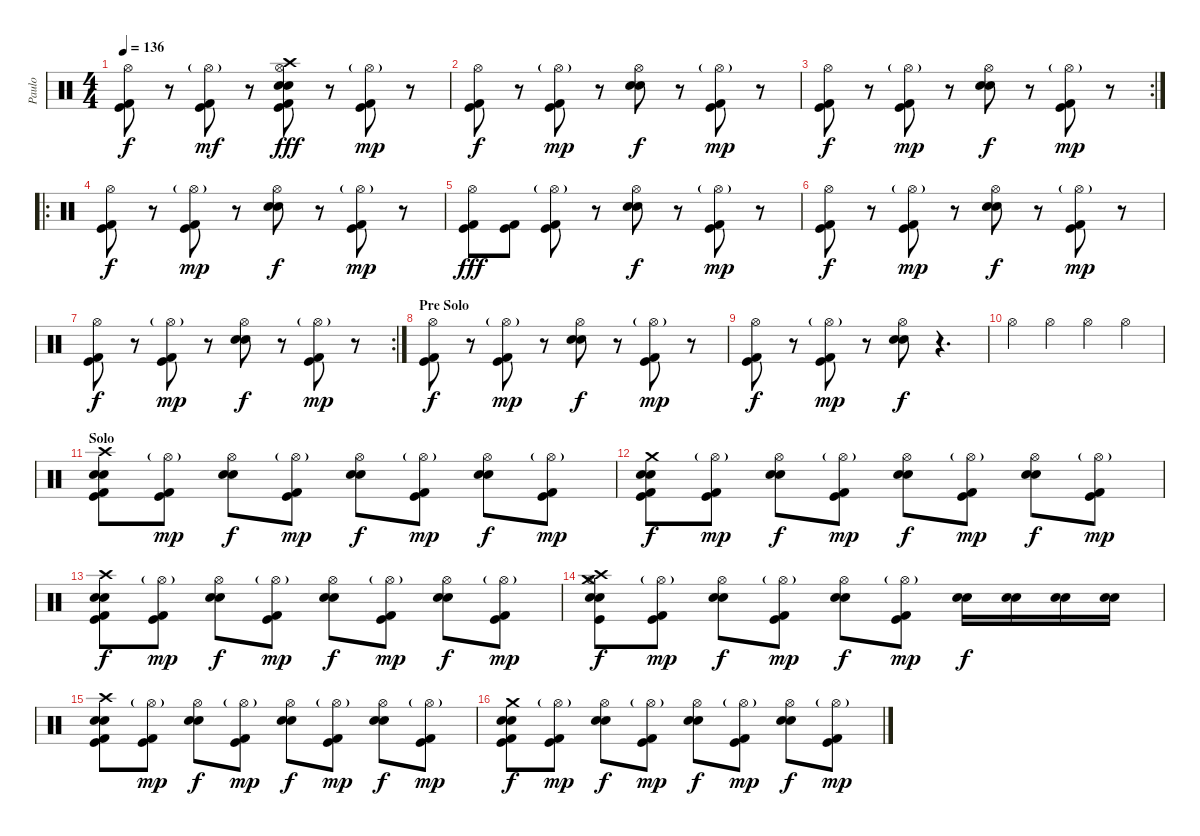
\track ("Paulo" "Paulo") {instrument percussion}
\staff {score}
\articulation defaults
\ts (4 4)
\tempo 136
\clef neutral
\ks c
("Hi-Hat (open)" "Kick (hit) 2" "Kick (hit)").8{dy f} r.8 ("Hi-Hat (open)"{g} "Kick (hit) 2" "Kick (hit)").8{dy mf} r.8 ("Hi-Hat (open)" "Snare (hit) 2" "Electric Snare (hit)" "Kick (hit)" "Crash high (hit)" "Kick (hit) 2").8{dy fff} r.8 ("Hi-Hat (open)"{g} "Kick (hit) 2" "Kick (hit)").8{dy mp} r.8 |
("Hi-Hat (open)" "Kick (hit) 2" "Kick (hit)").8{dy f} r.8 ("Hi-Hat (open)"{g} "Kick (hit) 2" "Kick (hit)").8{dy mp} r.8 ("Hi-Hat (open)" "Snare (hit) 2" "Electric Snare (hit)").8{dy f} r.8 ("Hi-Hat (open)"{g} "Kick (hit) 2" "Kick (hit)").8{dy mp} r.8 |
\rc 2
("Hi-Hat (open)" "Kick (hit) 2" "Kick (hit)").8{dy f} r.8 ("Hi-Hat (open)"{g} "Kick (hit) 2" "Kick (hit)").8{dy mp} r.8 ("Hi-Hat (open)" "Snare (hit) 2" "Electric Snare (hit)").8{dy f} r.8 ("Hi-Hat (open)"{g} "Kick (hit) 2" "Kick (hit)").8{dy mp} r.8 |
\ro
("Hi-Hat (open)" "Kick (hit) 2" "Kick (hit)").8{dy f} r.8 ("Hi-Hat (open)"{g} "Kick (hit) 2" "Kick (hit)").8{dy mp} r.8 ("Hi-Hat (open)" "Snare (hit) 2" "Electric Snare (hit)").8{dy f} r.8 ("Hi-Hat (open)"{g} "Kick (hit) 2" "Kick (hit)").8{dy mp} r.8 |
("Hi-Hat (open)" "Kick (hit) 2" "Kick (hit)").8{dy fff} ("Kick (hit) 2" "Kick (hit)").8 ("Hi-Hat (open)"{g} "Kick (hit) 2" "Kick (hit)").8 r.8 ("Hi-Hat (open)" "Snare (hit) 2" "Electric Snare (hit)").8{dy f} r.8 ("Hi-Hat (open)"{g} "Kick (hit) 2" "Kick (hit)").8{dy mp} r.8 |
("Hi-Hat (open)" "Kick (hit) 2" "Kick (hit)").8{dy f} r.8 ("Hi-Hat (open)"{g} "Kick (hit) 2" "Kick (hit)").8{dy mp} r.8 ("Hi-Hat (open)" "Snare (hit) 2" "Electric Snare (hit)").8{dy f} r.8 ("Hi-Hat (open)"{g} "Kick (hit) 2" "Kick (hit)").8{dy mp} r.8 |
\rc 2
("Hi-Hat (open)" "Kick (hit) 2" "Kick (hit)").8{dy f} r.8 ("Hi-Hat (open)"{g} "Kick (hit) 2" "Kick (hit)").8{dy mp} r.8 ("Hi-Hat (open)" "Snare (hit) 2" "Electric Snare (hit)").8{dy f} r.8 ("Hi-Hat (open)"{g} "Kick (hit) 2" "Kick (hit)").8{dy mp} r.8 |
\section ("" "Pre Solo")
("Hi-Hat (open)" "Kick (hit) 2" "Kick (hit)").8{dy f} r.8 ("Hi-Hat (open)"{g} "Kick (hit) 2" "Kick (hit)").8{dy mp} r.8 ("Hi-Hat (open)" "Snare (hit) 2" "Electric Snare (hit)").8{dy f} r.8 ("Hi-Hat (open)"{g} "Kick (hit) 2" "Kick (hit)").8{dy mp} r.8 |
("Hi-Hat (open)" "Kick (hit) 2" "Kick (hit)").8{dy f} r.8 ("Hi-Hat (open)"{g} "Kick (hit) 2" "Kick (hit)").8{dy mp} r.8 ("Hi-Hat (open)" "Snare (hit) 2" "Electric Snare (hit)").8{dy f} r.4{d} |
"Hi-Hat (open)".4 "Hi-Hat (open)".4 "Hi-Hat (open)".4 "Hi-Hat (open)".4 |
\section ("" "Solo")
("Kick (hit) 2" "Snare (hit) 2" "Electric Snare (hit)" "Kick (hit)" "Crash high (hit)").8 ("Hi-Hat (open)"{g} "Kick (hit) 2" "Kick (hit)").8{dy mp} ("Hi-Hat (open)" "Snare (hit) 2" "Electric Snare (hit)").8{dy f} ("Hi-Hat (open)"{g} "Kick (hit) 2" "Kick (hit)").8{dy mp} ("Hi-Hat (open)" "Snare (hit) 2" "Electric Snare (hit)").8{dy f} ("Hi-Hat (open)"{g} "Kick (hit) 2" "Kick (hit)").8{dy mp} ("Hi-Hat (open)" "Snare (hit) 2" "Electric Snare (hit)").8{dy f} ("Hi-Hat (open)"{g} "Kick (hit) 2" "Kick (hit)").8{dy mp} |
("Kick (hit) 2" "Snare (hit) 2" "Electric Snare (hit)" "Kick (hit)" "Crash medium (hit)").8{dy f} ("Hi-Hat (open)"{g} "Kick (hit) 2" "Kick (hit)").8{dy mp} ("Hi-Hat (open)" "Snare (hit) 2" "Electric Snare (hit)").8{dy f} ("Hi-Hat (open)"{g} "Kick (hit) 2" "Kick (hit)").8{dy mp} ("Hi-Hat (open)" "Snare (hit) 2" "Electric Snare (hit)").8{dy f} ("Hi-Hat (open)"{g} "Kick (hit) 2" "Kick (hit)").8{dy mp} ("Hi-Hat (open)" "Snare (hit) 2" "Electric Snare (hit)").8{dy f} ("Hi-Hat (open)"{g} "Kick (hit) 2" "Kick (hit)").8{dy mp} |
("Kick (hit) 2" "Snare (hit) 2" "Electric Snare (hit)" "Kick (hit)" "Crash high (hit)").8{dy f} ("Hi-Hat (open)"{g} "Kick (hit) 2" "Kick (hit)").8{dy mp} ("Hi-Hat (open)" "Snare (hit) 2" "Electric Snare (hit)").8{dy f} ("Hi-Hat (open)"{g} "Kick (hit) 2" "Kick (hit)").8{dy mp} ("Hi-Hat (open)" "Snare (hit) 2" "Electric Snare (hit)").8{dy f} ("Hi-Hat (open)"{g} "Kick (hit) 2" "Kick (hit)").8{dy mp} ("Hi-Hat (open)" "Snare (hit) 2" "Electric Snare (hit)").8{dy f} ("Hi-Hat (open)"{g} "Kick (hit) 2" "Kick (hit)").8{dy mp} |
("Hi-Hat (open)" "Snare (hit) 2" "Kick (hit)" "Crash medium (hit)" "Crash high (hit)" "Electric Snare (hit)").8{dy f} ("Hi-Hat (open)"{g} "Kick (hit) 2" "Kick (hit)").8{dy mp} ("Hi-Hat (open)" "Snare (hit) 2" "Electric Snare (hit)").8{dy f} ("Hi-Hat (open)"{g} "Kick (hit) 2" "Kick (hit)").8{dy mp} ("Hi-Hat (open)" "Snare (hit) 2" "Electric Snare (hit)").8{dy f} ("Hi-Hat (open)"{g} "Kick (hit) 2" "Kick (hit)").8{dy mp} ("Snare (hit) 2" "Electric Snare (hit)").16{dy f} ("Snare (hit) 2" "Electric Snare (hit)").16 ("Snare (hit) 2" "Electric Snare (hit)").16 ("Snare (hit) 2" "Electric Snare (hit)").16 |
("Kick (hit) 2" "Snare (hit) 2" "Electric Snare (hit)" "Kick (hit)" "Crash high (hit)").8 ("Hi-Hat (open)"{g} "Kick (hit) 2" "Kick (hit)").8{dy mp} ("Hi-Hat (open)" "Snare (hit) 2" "Electric Snare (hit)").8{dy f} ("Hi-Hat (open)"{g} "Kick (hit) 2" "Kick (hit)").8{dy mp} ("Hi-Hat (open)" "Snare (hit) 2" "Electric Snare (hit)").8{dy f} ("Hi-Hat (open)"{g} "Kick (hit) 2" "Kick (hit)").8{dy mp} ("Hi-Hat (open)" "Snare (hit) 2" "Electric Snare (hit)").8{dy f} ("Hi-Hat (open)"{g} "Kick (hit) 2" "Kick (hit)").8{dy mp} |
("Kick (hit) 2" "Snare (hit) 2" "Electric Snare (hit)" "Kick (hit)" "Crash medium (hit)").8{dy f} ("Hi-Hat (open)"{g} "Kick (hit) 2" "Kick (hit)").8{dy mp} ("Hi-Hat (open)" "Snare (hit) 2" "Electric Snare (hit)").8{dy f} ("Hi-Hat (open)"{g} "Kick (hit) 2" "Kick (hit)").8{dy mp} ("Hi-Hat (open)" "Snare (hit) 2" "Electric Snare (hit)").8{dy f} ("Hi-Hat (open)"{g} "Kick (hit) 2" "Kick (hit)").8{dy mp} ("Hi-Hat (open)" "Snare (hit) 2" "Electric Snare (hit)").8{dy f} ("Hi-Hat (open)"{g} "Kick (hit) 2" "Kick (hit)").8{dy mp}
